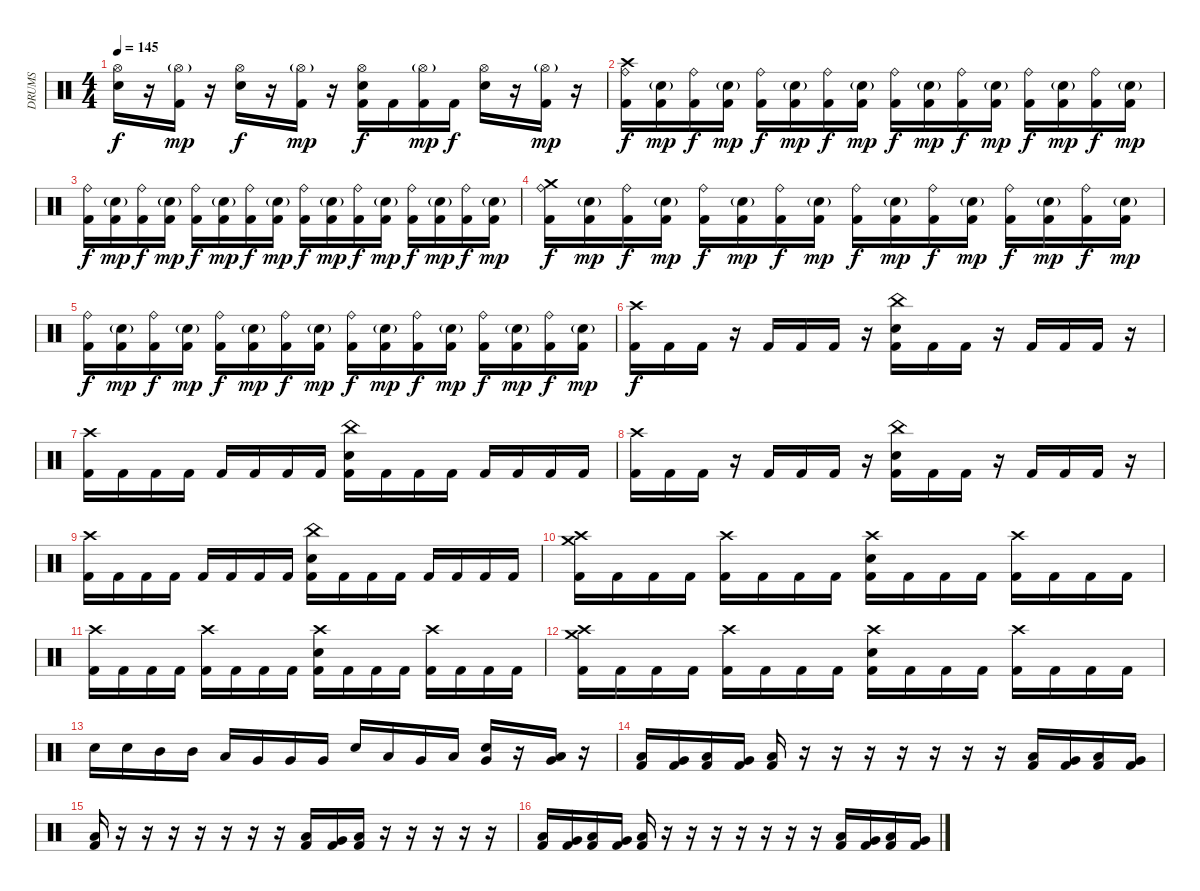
\track ("DRUMS" "DRUMS") {instrument percussion}
\staff {score}
\articulation defaults
\ts (4 4)
\tempo 145
\clef neutral
\ks c
("Hi-Hat (open)" "Electric Snare (hit)").16{dy f} r.16 ("Hi-Hat (open)"{g} "Kick (hit) 2").16{dy mp} r.16 ("Hi-Hat (open)" "Electric Snare (hit)").16{dy f} r.16 ("Hi-Hat (open)"{g} "Kick (hit) 2").16{dy mp} r.16 ("Hi-Hat (open)" "Electric Snare (hit)" "Kick (hit) 2").16{dy f} "Kick (hit) 2".16 ("Hi-Hat (open)"{g} "Kick (hit) 2").16{dy mp} "Kick (hit) 2".16{dy f} ("Hi-Hat (open)" "Electric Snare (hit)").16 r.16 ("Hi-Hat (open)"{g} "Kick (hit) 2").16{dy mp} r.16 |
("Crash high (hit)" "Ride (bell)" "Kick (hit) 2").16{dy f} ("Electric Snare (hit)"{g} "Kick (hit) 2").16{dy mp} ("Ride (bell)" "Kick (hit) 2").16{dy f} ("Electric Snare (hit)"{g} "Kick (hit) 2").16{dy mp} ("Ride (bell)" "Kick (hit) 2").16{dy f} ("Electric Snare (hit)"{g} "Kick (hit) 2").16{dy mp} ("Ride (bell)" "Kick (hit) 2").16{dy f} ("Electric Snare (hit)"{g} "Kick (hit) 2").16{dy mp} ("Ride (bell)" "Kick (hit) 2").16{dy f} ("Electric Snare (hit)"{g} "Kick (hit) 2").16{dy mp} ("Ride (bell)" "Kick (hit) 2").16{dy f} ("Electric Snare (hit)"{g} "Kick (hit) 2").16{dy mp} ("Ride (bell)" "Kick (hit) 2").16{dy f} ("Electric Snare (hit)"{g} "Kick (hit) 2").16{dy mp} ("Ride (bell)" "Kick (hit) 2").16{dy f} ("Electric Snare (hit)"{g} "Kick (hit) 2").16{dy mp} |
("Ride (bell)" "Kick (hit) 2").16{dy f} ("Electric Snare (hit)"{g} "Kick (hit) 2").16{dy mp} ("Ride (bell)" "Kick (hit) 2").16{dy f} ("Electric Snare (hit)"{g} "Kick (hit) 2").16{dy mp} ("Ride (bell)" "Kick (hit) 2").16{dy f} ("Electric Snare (hit)"{g} "Kick (hit) 2").16{dy mp} ("Ride (bell)" "Kick (hit) 2").16{dy f} ("Electric Snare (hit)"{g} "Kick (hit) 2").16{dy mp} ("Ride (bell)" "Kick (hit) 2").16{dy f} ("Electric Snare (hit)"{g} "Kick (hit) 2").16{dy mp} ("Ride (bell)" "Kick (hit) 2").16{dy f} ("Electric Snare (hit)"{g} "Kick (hit) 2").16{dy mp} ("Ride (bell)" "Kick (hit) 2").16{dy f} ("Electric Snare (hit)"{g} "Kick (hit) 2").16{dy mp} ("Ride (bell)" "Kick (hit) 2").16{dy f} ("Electric Snare (hit)"{g} "Kick (hit) 2").16{dy mp} |
("Crash medium (hit)" "Ride (bell)" "Kick (hit) 2").16{dy f} ("Electric Snare (hit)"{g} "Kick (hit) 2").16{dy mp} ("Ride (bell)" "Kick (hit) 2").16{dy f} ("Electric Snare (hit)"{g} "Kick (hit) 2").16{dy mp} ("Ride (bell)" "Kick (hit) 2").16{dy f} ("Electric Snare (hit)"{g} "Kick (hit) 2").16{dy mp} ("Ride (bell)" "Kick (hit) 2").16{dy f} ("Electric Snare (hit)"{g} "Kick (hit) 2").16{dy mp} ("Ride (bell)" "Kick (hit) 2").16{dy f} ("Electric Snare (hit)"{g} "Kick (hit) 2").16{dy mp} ("Ride (bell)" "Kick (hit) 2").16{dy f} ("Electric Snare (hit)"{g} "Kick (hit) 2").16{dy mp} ("Ride (bell)" "Kick (hit) 2").16{dy f} ("Electric Snare (hit)"{g} "Kick (hit) 2").16{dy mp} ("Ride (bell)" "Kick (hit) 2").16{dy f} ("Electric Snare (hit)"{g} "Kick (hit) 2").16{dy mp} |
("Ride (bell)" "Kick (hit) 2").16{dy f} ("Electric Snare (hit)"{g} "Kick (hit) 2").16{dy mp} ("Ride (bell)" "Kick (hit) 2").16{dy f} ("Electric Snare (hit)"{g} "Kick (hit) 2").16{dy mp} ("Ride (bell)" "Kick (hit) 2").16{dy f} ("Electric Snare (hit)"{g} "Kick (hit) 2").16{dy mp} ("Ride (bell)" "Kick (hit) 2").16{dy f} ("Electric Snare (hit)"{g} "Kick (hit) 2").16{dy mp} ("Ride (bell)" "Kick (hit) 2").16{dy f} ("Electric Snare (hit)"{g} "Kick (hit) 2").16{dy mp} ("Ride (bell)" "Kick (hit) 2").16{dy f} ("Electric Snare (hit)"{g} "Kick (hit) 2").16{dy mp} ("Ride (bell)" "Kick (hit) 2").16{dy f} ("Electric Snare (hit)"{g} "Kick (hit) 2").16{dy mp} ("Ride (bell)" "Kick (hit) 2").16{dy f} ("Electric Snare (hit)"{g} "Kick (hit) 2").16{dy mp} |
("Crash high (hit)" "Kick (hit) 2").16{dy f} "Kick (hit) 2".16 "Kick (hit) 2".16 r.16 "Kick (hit) 2".16 "Kick (hit) 2".16 "Kick (hit) 2".16 r.16 ("China (hit)" "Electric Snare (hit)" "Kick (hit) 2").16 "Kick (hit) 2".16 "Kick (hit) 2".16 r.16 "Kick (hit) 2".16 "Kick (hit) 2".16 "Kick (hit) 2".16 r.16 |
("Crash high (hit)" "Kick (hit) 2").16 "Kick (hit) 2".16 "Kick (hit) 2".16 "Kick (hit) 2".16 "Kick (hit) 2".16 "Kick (hit) 2".16 "Kick (hit) 2".16 "Kick (hit) 2".16 ("China (hit)" "Electric Snare (hit)" "Kick (hit) 2").16 "Kick (hit) 2".16 "Kick (hit) 2".16 "Kick (hit) 2".16 "Kick (hit) 2".16 "Kick (hit) 2".16 "Kick (hit) 2".16 "Kick (hit) 2".16 |
("Crash high (hit)" "Kick (hit) 2").16 "Kick (hit) 2".16 "Kick (hit) 2".16 r.16 "Kick (hit) 2".16 "Kick (hit) 2".16 "Kick (hit) 2".16 r.16 ("China (hit)" "Electric Snare (hit)" "Kick (hit) 2").16 "Kick (hit) 2".16 "Kick (hit) 2".16 r.16 "Kick (hit) 2".16 "Kick (hit) 2".16 "Kick (hit) 2".16 r.16 |
("Crash high (hit)" "Kick (hit) 2").16 "Kick (hit) 2".16 "Kick (hit) 2".16 "Kick (hit) 2".16 "Kick (hit) 2".16 "Kick (hit) 2".16 "Kick (hit) 2".16 "Kick (hit) 2".16 ("China (hit)" "Electric Snare (hit)" "Kick (hit) 2").16 "Kick (hit) 2".16 "Kick (hit) 2".16 "Kick (hit) 2".16 "Kick (hit) 2".16 "Kick (hit) 2".16 "Kick (hit) 2".16 "Kick (hit) 2".16 |
("Crash medium (hit)" "Crash high (hit)" "Kick (hit) 2").16 "Kick (hit) 2".16 "Kick (hit) 2".16 "Kick (hit) 2".16 ("Crash high (hit)" "Kick (hit) 2").16 "Kick (hit) 2".16 "Kick (hit) 2".16 "Kick (hit) 2".16 ("Crash high (hit)" "Electric Snare (hit)" "Kick (hit) 2").16 "Kick (hit) 2".16 "Kick (hit) 2".16 "Kick (hit) 2".16 ("Crash high (hit)" "Kick (hit) 2").16 "Kick (hit) 2".16 "Kick (hit) 2".16 "Kick (hit) 2".16 |
("Crash high (hit)" "Kick (hit) 2").16 "Kick (hit) 2".16 "Kick (hit) 2".16 "Kick (hit) 2".16 ("Crash high (hit)" "Kick (hit) 2").16 "Kick (hit) 2".16 "Kick (hit) 2".16 "Kick (hit) 2".16 ("Crash high (hit)" "Electric Snare (hit)" "Kick (hit) 2").16 "Kick (hit) 2".16 "Kick (hit) 2".16 "Kick (hit) 2".16 ("Crash high (hit)" "Kick (hit) 2").16 "Kick (hit) 2".16 "Kick (hit) 2".16 "Kick (hit) 2".16 |
("Crash high (hit)" "Crash medium (hit)" "Kick (hit) 2").16 "Kick (hit) 2".16 "Kick (hit) 2".16 "Kick (hit) 2".16 ("Crash high (hit)" "Kick (hit) 2").16 "Kick (hit) 2".16 "Kick (hit) 2".16 "Kick (hit) 2".16 ("Crash high (hit)" "Electric Snare (hit)" "Kick (hit) 2").16 "Kick (hit) 2".16 "Kick (hit) 2".16 "Kick (hit) 2".16 ("Crash high (hit)" "Kick (hit) 2").16 "Kick (hit) 2".16 "Kick (hit) 2".16 "Kick (hit) 2".16 |
"Electric Snare (hit)".16 "Electric Snare (hit)".16 "Mid Tom (hit)".16 "Mid Tom (hit)".16 "Low Tom (hit)".16 "Very Low Tom (hit)".16 "Very Low Tom (hit)".16 "Very Low Tom (hit)".16 "Electric Snare (hit)".16 "Low Tom (hit)".16 "Very Low Tom (hit)".16 "Low Floor Tom (hit)".16 ("Very Low Tom (hit)" "Electric Snare (hit)").16 r.16 ("Low Floor Tom (hit)" "Very Low Tom (hit)").16 r.16 |
("Low Floor Tom (hit)" "Kick (hit) 2").16 ("Very Low Tom (hit)" "Kick (hit) 2").16 ("Low Floor Tom (hit)" "Kick (hit) 2").16 ("Very Low Tom (hit)" "Kick (hit) 2").16 ("Low Floor Tom (hit)" "Kick (hit) 2").16 r.16 r.16 r.16 r.16 r.16 r.16 r.16 ("Low Floor Tom (hit)" "Kick (hit) 2").16 ("Very Low Tom (hit)" "Kick (hit) 2").16 ("Low Floor Tom (hit)" "Kick (hit) 2").16 ("Very Low Tom (hit)" "Kick (hit) 2").16 |
("Low Floor Tom (hit)" "Kick (hit) 2").16 r.16 r.16 r.16 r.16 r.16 r.16 r.16 ("Low Floor Tom (hit)" "Kick (hit) 2").16 ("Very Low Tom (hit)" "Kick (hit) 2").16 ("Low Floor Tom (hit)" "Kick (hit) 2").16 r.16 r.16 r.16 r.16 r.16 |
("Low Floor Tom (hit)" "Kick (hit) 2").16 ("Very Low Tom (hit)" "Kick (hit) 2").16 ("Low Floor Tom (hit)" "Kick (hit) 2").16 ("Very Low Tom (hit)" "Kick (hit) 2").16 ("Low Floor Tom (hit)" "Kick (hit) 2").16 r.16 r.16 r.16 r.16 r.16 r.16 r.16 ("Low Floor Tom (hit)" "Kick (hit) 2").16 ("Very Low Tom (hit)" "Kick (hit) 2").16 ("Low Floor Tom (hit)" "Kick (hit) 2").16 ("Very Low Tom (hit)" "Kick (hit) 2").16
